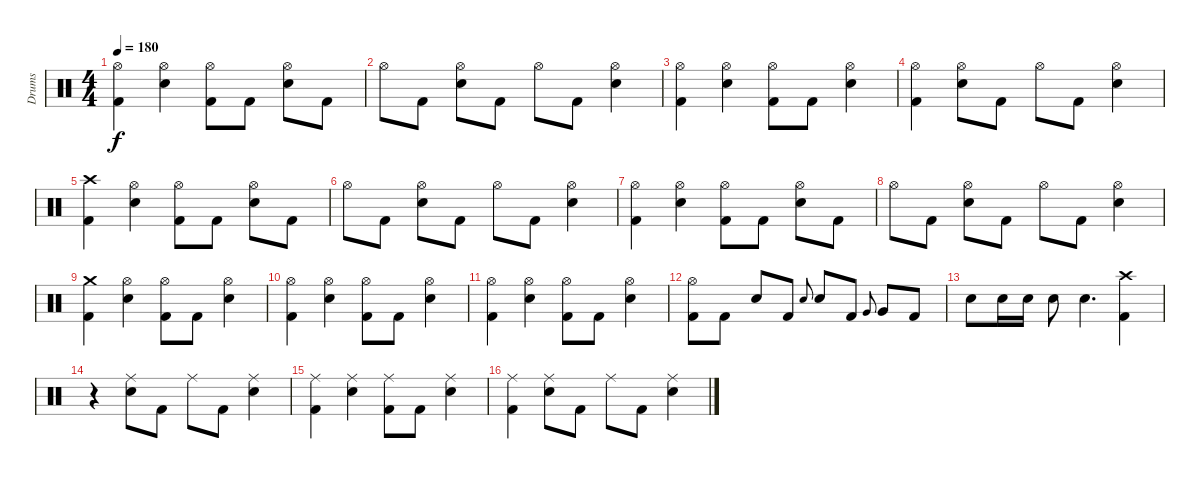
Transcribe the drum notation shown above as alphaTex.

\track ("Drums" "Drums") {instrument percussion}
\staff {score}
\articulation defaults
\ts (4 4)
\tempo 180
\clef neutral
\ks c
("Hi-Hat (open)" "Kick (hit) 2").4{dy f} ("Hi-Hat (open)" "Electric Snare (hit)").4 ("Hi-Hat (open)" "Kick (hit) 2").8 "Kick (hit) 2".8 ("Hi-Hat (open)" "Electric Snare (hit)").8 "Kick (hit) 2".8 |
"Hi-Hat (open)".8 "Kick (hit) 2".8 ("Hi-Hat (open)" "Electric Snare (hit)").8 "Kick (hit) 2".8 "Hi-Hat (open)".8 "Kick (hit) 2".8 ("Hi-Hat (open)" "Electric Snare (hit)").4 |
("Hi-Hat (open)" "Kick (hit) 2").4 ("Hi-Hat (open)" "Electric Snare (hit)").4 ("Hi-Hat (open)" "Kick (hit) 2").8 "Kick (hit) 2".8 ("Hi-Hat (open)" "Electric Snare (hit)").4 |
("Hi-Hat (open)" "Kick (hit) 2").4 ("Hi-Hat (open)" "Electric Snare (hit)").8 "Kick (hit) 2".8 "Hi-Hat (open)".8 "Kick (hit) 2".8 ("Hi-Hat (open)" "Electric Snare (hit)").4 |
("Crash high (hit)" "Kick (hit) 2").4 ("Hi-Hat (open)" "Electric Snare (hit)").4 ("Hi-Hat (open)" "Kick (hit) 2").8 "Kick (hit) 2".8 ("Hi-Hat (open)" "Electric Snare (hit)").8 "Kick (hit) 2".8 |
"Hi-Hat (open)".8 "Kick (hit) 2".8 ("Hi-Hat (open)" "Electric Snare (hit)").8 "Kick (hit) 2".8 "Hi-Hat (open)".8 "Kick (hit) 2".8 ("Hi-Hat (open)" "Electric Snare (hit)").4 |
("Hi-Hat (open)" "Kick (hit) 2").4 ("Hi-Hat (open)" "Electric Snare (hit)").4 ("Hi-Hat (open)" "Kick (hit) 2").8 "Kick (hit) 2".8 ("Hi-Hat (open)" "Electric Snare (hit)").8 "Kick (hit) 2".8 |
"Hi-Hat (open)".8 "Kick (hit) 2".8 ("Hi-Hat (open)" "Electric Snare (hit)").8 "Kick (hit) 2".8 "Hi-Hat (open)".8 "Kick (hit) 2".8 ("Hi-Hat (open)" "Electric Snare (hit)").4 |
("Crash medium (hit)" "Kick (hit) 2").4 ("Hi-Hat (open)" "Electric Snare (hit)").4 ("Hi-Hat (open)" "Kick (hit) 2").8 "Kick (hit) 2".8 ("Hi-Hat (open)" "Electric Snare (hit)").4 |
("Hi-Hat (open)" "Kick (hit) 2").4 ("Hi-Hat (open)" "Electric Snare (hit)").4 ("Hi-Hat (open)" "Kick (hit) 2").8 "Kick (hit) 2".8 ("Hi-Hat (open)" "Electric Snare (hit)").4 |
("Hi-Hat (open)" "Kick (hit) 2").4 ("Hi-Hat (open)" "Electric Snare (hit)").4 ("Hi-Hat (open)" "Kick (hit) 2").8 "Kick (hit) 2".8 ("Hi-Hat (open)" "Electric Snare (hit)").4 |
("Hi-Hat (open)" "Kick (hit) 2").8 "Kick (hit) 2".8 "Electric Snare (hit)".8 "Kick (hit) 2".8 "Electric Snare (hit)".8{gr onbeat} "Electric Snare (hit)".8 "Kick (hit) 2".8 "Very Low Tom (hit)".8{gr onbeat} "Very Low Tom (hit)".8 "Kick (hit) 2".8 |
"Electric Snare (hit)".8 "Electric Snare (hit)".16 "Electric Snare (hit)".16 "Electric Snare (hit)".8 "Electric Snare (hit)".4{d} ("Crash high (hit)" "Kick (hit) 2").4 |
r.4 ("Ride (middle)" "Electric Snare (hit)").8 "Kick (hit) 2".8 "Ride (middle)".8 "Kick (hit) 2".8 ("Ride (middle)" "Electric Snare (hit)").4 |
("Ride (middle)" "Kick (hit) 2").4 ("Ride (middle)" "Electric Snare (hit)").4 ("Ride (middle)" "Kick (hit) 2").8 "Kick (hit) 2".8 ("Ride (middle)" "Electric Snare (hit)").4 |
("Ride (middle)" "Kick (hit) 2").4 ("Ride (middle)" "Electric Snare (hit)").8 "Kick (hit) 2".8 "Ride (middle)".8 "Kick (hit) 2".8 ("Ride (middle)" "Electric Snare (hit)").4
